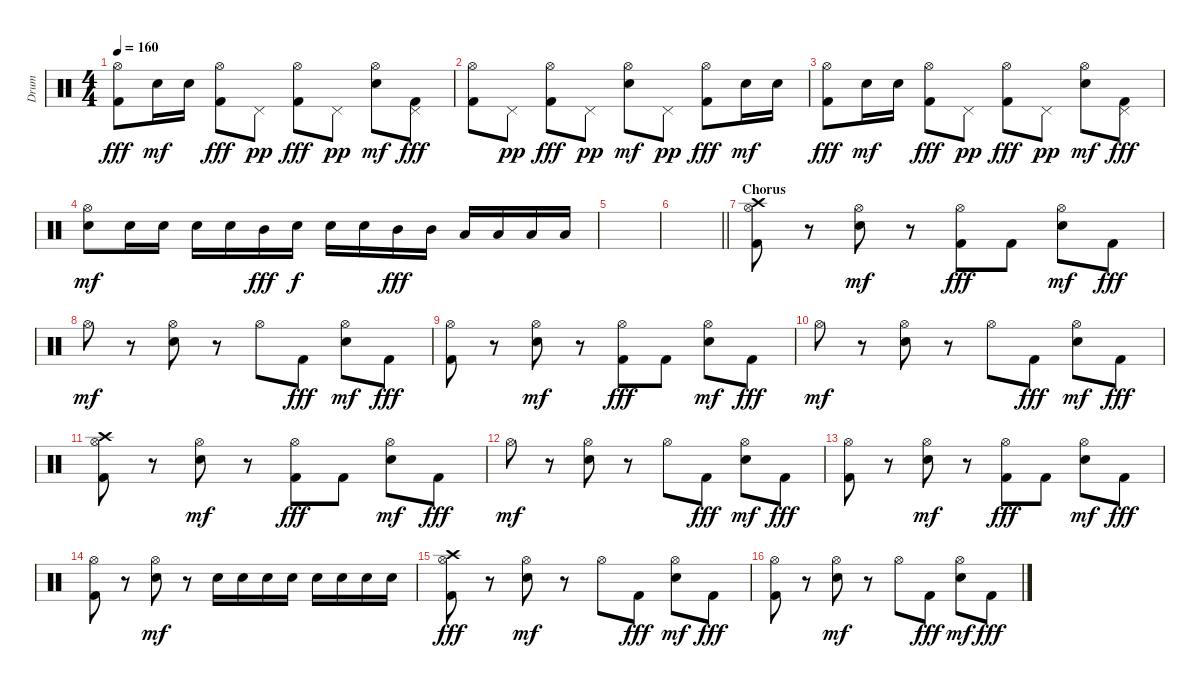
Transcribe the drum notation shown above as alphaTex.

\track ("Drum" "Drum") {instrument percussion}
\staff {score}
\articulation defaults
\ts (4 4)
\tempo 160
\clef neutral
\ks c
("Hi-Hat (open)" "Kick (hit) 2").8{dy fff} "Electric Snare (hit)".16{dy mf} "Electric Snare (hit)".16 ("Hi-Hat (open)" "Kick (hit) 2").8{dy fff} "Pedal Hi-Hat (hit)".8{dy pp} ("Hi-Hat (open)" "Kick (hit) 2").8{dy fff} "Pedal Hi-Hat (hit)".8{dy pp} ("Hi-Hat (open)" "Electric Snare (hit)").8{dy mf} ("Pedal Hi-Hat (hit)" "Kick (hit) 2").8{dy fff} |
("Hi-Hat (open)" "Kick (hit) 2").8 "Pedal Hi-Hat (hit)".8{dy pp} ("Hi-Hat (open)" "Kick (hit) 2").8{dy fff} "Pedal Hi-Hat (hit)".8{dy pp} ("Hi-Hat (open)" "Electric Snare (hit)").8{dy mf} "Pedal Hi-Hat (hit)".8{dy pp} ("Hi-Hat (open)" "Kick (hit) 2").8{dy fff} "Electric Snare (hit)".16{dy mf} "Electric Snare (hit)".16 |
("Hi-Hat (open)" "Kick (hit) 2").8{dy fff} "Electric Snare (hit)".16{dy mf} "Electric Snare (hit)".16 ("Hi-Hat (open)" "Kick (hit) 2").8{dy fff} "Pedal Hi-Hat (hit)".8{dy pp} ("Hi-Hat (open)" "Kick (hit) 2").8{dy fff} "Pedal Hi-Hat (hit)".8{dy pp} ("Hi-Hat (open)" "Electric Snare (hit)").8{dy mf} ("Pedal Hi-Hat (hit)" "Kick (hit) 2").8{dy fff} |
("Hi-Hat (open)" "Electric Snare (hit)").8{dy mf} "Electric Snare (hit)".16 "Electric Snare (hit)".16 "Electric Snare (hit)".16 "Electric Snare (hit)".16 "Mid Tom (hit)".16{dy fff} "Electric Snare (hit)".16{dy f} "Electric Snare (hit)".16 "Electric Snare (hit)".16 "Mid Tom (hit)".16{dy fff} "Mid Tom (hit)".16 "Low Tom (hit)".16 "Low Tom (hit)".16 "Low Tom (hit)".16 "Low Tom (hit)".16 |
|
\barLineRight lightlight
|
\section ("" "Chorus")
("Hi-Hat (open)" "Kick (hit) 2" "Crash high (hit)").8 r.8 ("Hi-Hat (open)" "Electric Snare (hit)").8{dy mf} r.8 ("Hi-Hat (open)" "Kick (hit) 2").8{dy fff} "Kick (hit) 2".8 ("Hi-Hat (open)" "Electric Snare (hit)").8{dy mf} "Kick (hit) 2".8{dy fff} |
"Hi-Hat (open)".8{dy mf} r.8 ("Hi-Hat (open)" "Electric Snare (hit)").8 r.8 "Hi-Hat (open)".8 "Kick (hit) 2".8{dy fff} ("Hi-Hat (open)" "Electric Snare (hit)").8{dy mf} "Kick (hit) 2".8{dy fff} |
("Hi-Hat (open)" "Kick (hit) 2").8 r.8 ("Hi-Hat (open)" "Electric Snare (hit)").8{dy mf} r.8 ("Hi-Hat (open)" "Kick (hit) 2").8{dy fff} "Kick (hit) 2".8 ("Hi-Hat (open)" "Electric Snare (hit)").8{dy mf} "Kick (hit) 2".8{dy fff} |
"Hi-Hat (open)".8{dy mf} r.8 ("Hi-Hat (open)" "Electric Snare (hit)").8 r.8 "Hi-Hat (open)".8 "Kick (hit) 2".8{dy fff} ("Hi-Hat (open)" "Electric Snare (hit)").8{dy mf} "Kick (hit) 2".8{dy fff} |
("Hi-Hat (open)" "Kick (hit) 2" "Crash high (hit)").8 r.8 ("Hi-Hat (open)" "Electric Snare (hit)").8{dy mf} r.8 ("Hi-Hat (open)" "Kick (hit) 2").8{dy fff} "Kick (hit) 2".8 ("Hi-Hat (open)" "Electric Snare (hit)").8{dy mf} "Kick (hit) 2".8{dy fff} |
"Hi-Hat (open)".8{dy mf} r.8 ("Hi-Hat (open)" "Electric Snare (hit)").8 r.8 "Hi-Hat (open)".8 "Kick (hit) 2".8{dy fff} ("Hi-Hat (open)" "Electric Snare (hit)").8{dy mf} "Kick (hit) 2".8{dy fff} |
("Hi-Hat (open)" "Kick (hit) 2").8 r.8 ("Hi-Hat (open)" "Electric Snare (hit)").8{dy mf} r.8 ("Hi-Hat (open)" "Kick (hit) 2").8{dy fff} "Kick (hit) 2".8 ("Hi-Hat (open)" "Electric Snare (hit)").8{dy mf} "Kick (hit) 2".8{dy fff} |
("Hi-Hat (open)" "Kick (hit) 2").8 r.8 ("Hi-Hat (open)" "Electric Snare (hit)").8{dy mf} r.8 "Electric Snare (hit)".16 "Electric Snare (hit)".16 "Electric Snare (hit)".16 "Electric Snare (hit)".16 "Electric Snare (hit)".16 "Electric Snare (hit)".16 "Electric Snare (hit)".16 "Electric Snare (hit)".16 |
("Hi-Hat (open)" "Kick (hit) 2" "Crash high (hit)").8{dy fff} r.8 ("Hi-Hat (open)" "Electric Snare (hit)").8{dy mf} r.8 "Hi-Hat (open)".8 "Kick (hit) 2".8{dy fff} ("Hi-Hat (open)" "Electric Snare (hit)").8{dy mf} "Kick (hit) 2".8{dy fff} |
("Hi-Hat (open)" "Kick (hit) 2").8 r.8 ("Hi-Hat (open)" "Electric Snare (hit)").8{dy mf} r.8 "Hi-Hat (open)".8 "Kick (hit) 2".8{dy fff} ("Hi-Hat (open)" "Electric Snare (hit)").8{dy mf} "Kick (hit) 2".8{dy fff}
